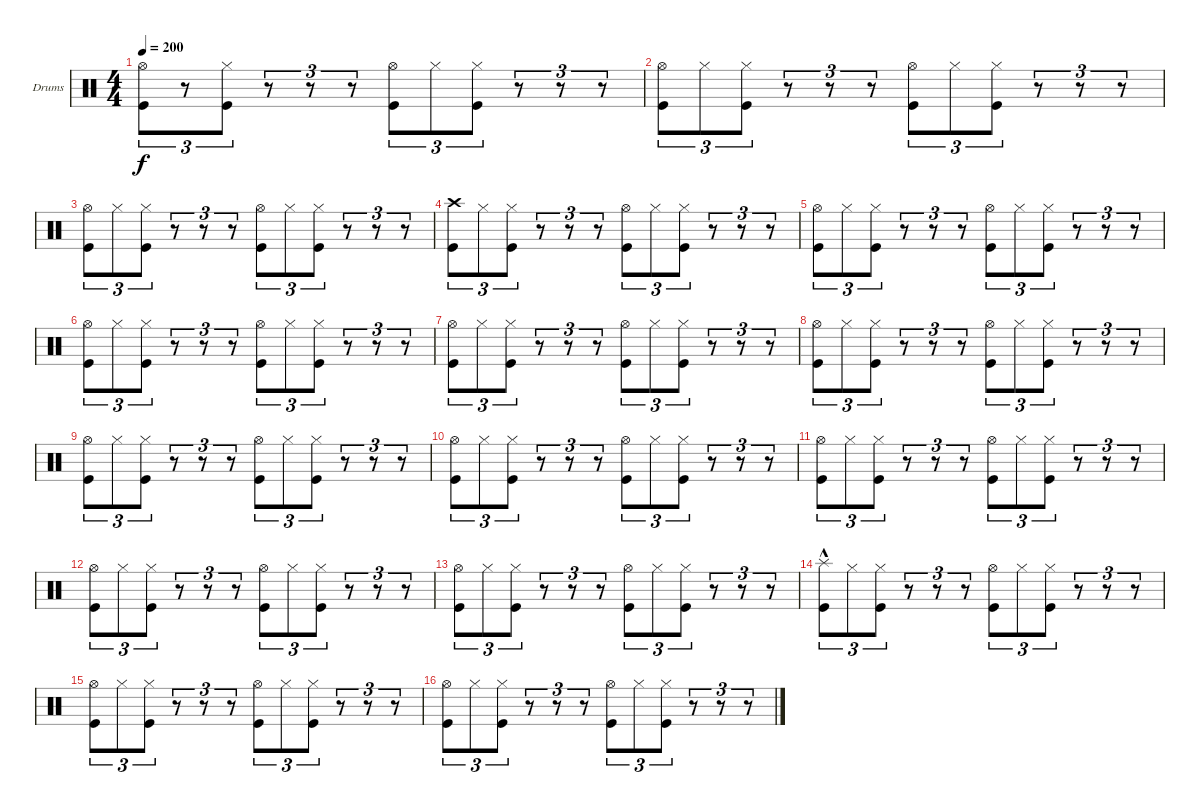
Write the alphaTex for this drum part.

\bracketExtendMode groupsimilarinstruments
\firstSystemTrackNameOrientation horizontal
\otherSystemsTrackNameOrientation horizontal
\track ("Drumkit" "Drums") {instrument percussion}
\staff {score}
\articulation defaults
\ts (4 4)
\tempo 200
\clef neutral
\scale
0.333333
\ks c
("Kick (hit)" "Hi-Hat (open)").8{tu (3 2) dy f} r.8{tu (3 2)} ("Kick (hit)" "Hi-Hat (closed)").8{tu (3 2)} r.8{tu (3 2)} r.8{tu (3 2)} r.8{tu (3 2)} ("Kick (hit)" "Hi-Hat (open)").8{tu (3 2)} "Hi-Hat (closed)".8{tu (3 2)} ("Kick (hit)" "Hi-Hat (closed)").8{tu (3 2)} r.8{tu (3 2)} r.8{tu (3 2)} r.8{tu (3 2)} |
\scale
0.333333 ("Kick (hit)" "Hi-Hat (open)").8{tu (3 2)} "Hi-Hat (closed)".8{tu (3 2)} ("Kick (hit)" "Hi-Hat (closed)").8{tu (3 2)} r.8{tu (3 2)} r.8{tu (3 2)} r.8{tu (3 2)} ("Kick (hit)" "Hi-Hat (open)").8{tu (3 2)} "Hi-Hat (closed)".8{tu (3 2)} ("Kick (hit)" "Hi-Hat (closed)").8{tu (3 2)} r.8{tu (3 2)} r.8{tu (3 2)} r.8{tu (3 2)} |
\scale
0.333333 ("Kick (hit)" "Hi-Hat (open)").8{tu (3 2)} "Hi-Hat (closed)".8{tu (3 2)} ("Kick (hit)" "Hi-Hat (closed)").8{tu (3 2)} r.8{tu (3 2)} r.8{tu (3 2)} r.8{tu (3 2)} ("Kick (hit)" "Hi-Hat (open)").8{tu (3 2)} "Hi-Hat (closed)".8{tu (3 2)} ("Kick (hit)" "Hi-Hat (closed)").8{tu (3 2)} r.8{tu (3 2)} r.8{tu (3 2)} r.8{tu (3 2)} |
\scale
0.333333 ("Kick (hit)" "Crash high (hit)").8{tu (3 2)} "Hi-Hat (closed)".8{tu (3 2)} ("Kick (hit)" "Hi-Hat (closed)").8{tu (3 2)} r.8{tu (3 2)} r.8{tu (3 2)} r.8{tu (3 2)} ("Kick (hit)" "Hi-Hat (open)").8{tu (3 2)} "Hi-Hat (closed)".8{tu (3 2)} ("Kick (hit)" "Hi-Hat (closed)").8{tu (3 2)} r.8{tu (3 2)} r.8{tu (3 2)} r.8{tu (3 2)} |
\scale
0.333333 ("Kick (hit)" "Hi-Hat (open)").8{tu (3 2)} "Hi-Hat (closed)".8{tu (3 2)} ("Kick (hit)" "Hi-Hat (closed)").8{tu (3 2)} r.8{tu (3 2)} r.8{tu (3 2)} r.8{tu (3 2)} ("Kick (hit)" "Hi-Hat (open)").8{tu (3 2)} "Hi-Hat (closed)".8{tu (3 2)} ("Kick (hit)" "Hi-Hat (closed)").8{tu (3 2)} r.8{tu (3 2)} r.8{tu (3 2)} r.8{tu (3 2)} |
\scale
0.333333 ("Kick (hit)" "Hi-Hat (open)").8{tu (3 2)} "Hi-Hat (closed)".8{tu (3 2)} ("Kick (hit)" "Hi-Hat (closed)").8{tu (3 2)} r.8{tu (3 2)} r.8{tu (3 2)} r.8{tu (3 2)} ("Kick (hit)" "Hi-Hat (open)").8{tu (3 2)} "Hi-Hat (closed)".8{tu (3 2)} ("Kick (hit)" "Hi-Hat (closed)").8{tu (3 2)} r.8{tu (3 2)} r.8{tu (3 2)} r.8{tu (3 2)} |
\scale
0.333333 ("Kick (hit)" "Hi-Hat (open)").8{tu (3 2)} "Hi-Hat (closed)".8{tu (3 2)} ("Kick (hit)" "Hi-Hat (closed)").8{tu (3 2)} r.8{tu (3 2)} r.8{tu (3 2)} r.8{tu (3 2)} ("Kick (hit)" "Hi-Hat (open)").8{tu (3 2)} "Hi-Hat (closed)".8{tu (3 2)} ("Kick (hit)" "Hi-Hat (closed)").8{tu (3 2)} r.8{tu (3 2)} r.8{tu (3 2)} r.8{tu (3 2)} |
\scale
0.333333 ("Kick (hit)" "Hi-Hat (open)").8{tu (3 2)} "Hi-Hat (closed)".8{tu (3 2)} ("Kick (hit)" "Hi-Hat (closed)").8{tu (3 2)} r.8{tu (3 2)} r.8{tu (3 2)} r.8{tu (3 2)} ("Kick (hit)" "Hi-Hat (open)").8{tu (3 2)} "Hi-Hat (closed)".8{tu (3 2)} ("Kick (hit)" "Hi-Hat (closed)").8{tu (3 2)} r.8{tu (3 2)} r.8{tu (3 2)} r.8{tu (3 2)} |
\scale
0.333333 ("Kick (hit)" "Hi-Hat (open)").8{tu (3 2)} "Hi-Hat (closed)".8{tu (3 2)} ("Kick (hit)" "Hi-Hat (closed)").8{tu (3 2)} r.8{tu (3 2)} r.8{tu (3 2)} r.8{tu (3 2)} ("Kick (hit)" "Hi-Hat (open)").8{tu (3 2)} "Hi-Hat (closed)".8{tu (3 2)} ("Kick (hit)" "Hi-Hat (closed)").8{tu (3 2)} r.8{tu (3 2)} r.8{tu (3 2)} r.8{tu (3 2)} |
\scale
0.333333 ("Kick (hit)" "Hi-Hat (open)").8{tu (3 2)} "Hi-Hat (closed)".8{tu (3 2)} ("Kick (hit)" "Hi-Hat (closed)").8{tu (3 2)} r.8{tu (3 2)} r.8{tu (3 2)} r.8{tu (3 2)} ("Kick (hit)" "Hi-Hat (open)").8{tu (3 2)} "Hi-Hat (closed)".8{tu (3 2)} ("Kick (hit)" "Hi-Hat (closed)").8{tu (3 2)} r.8{tu (3 2)} r.8{tu (3 2)} r.8{tu (3 2)} |
\scale
0.333333 ("Kick (hit)" "Hi-Hat (open)").8{tu (3 2)} "Hi-Hat (closed)".8{tu (3 2)} ("Kick (hit)" "Hi-Hat (closed)").8{tu (3 2)} r.8{tu (3 2)} r.8{tu (3 2)} r.8{tu (3 2)} ("Kick (hit)" "Hi-Hat (open)").8{tu (3 2)} "Hi-Hat (closed)".8{tu (3 2)} ("Kick (hit)" "Hi-Hat (closed)").8{tu (3 2)} r.8{tu (3 2)} r.8{tu (3 2)} r.8{tu (3 2)} |
\scale
0.333333 ("Kick (hit)" "Hi-Hat (open)").8{tu (3 2)} "Hi-Hat (closed)".8{tu (3 2)} ("Kick (hit)" "Hi-Hat (closed)").8{tu (3 2)} r.8{tu (3 2)} r.8{tu (3 2)} r.8{tu (3 2)} ("Kick (hit)" "Hi-Hat (open)").8{tu (3 2)} "Hi-Hat (closed)".8{tu (3 2)} ("Kick (hit)" "Hi-Hat (closed)").8{tu (3 2)} r.8{tu (3 2)} r.8{tu (3 2)} r.8{tu (3 2)} |
\scale
0.333333 ("Kick (hit)" "Hi-Hat (open)").8{tu (3 2)} "Hi-Hat (closed)".8{tu (3 2)} ("Kick (hit)" "Hi-Hat (closed)").8{tu (3 2)} r.8{tu (3 2)} r.8{tu (3 2)} r.8{tu (3 2)} ("Kick (hit)" "Hi-Hat (open)").8{tu (3 2)} "Hi-Hat (closed)".8{tu (3 2)} ("Kick (hit)" "Hi-Hat (closed)").8{tu (3 2)} r.8{tu (3 2)} r.8{tu (3 2)} r.8{tu (3 2)} |
\scale
0.333333 ("Kick (hit)" "Splash (hit)"{hac}).8{tu (3 2)} "Hi-Hat (closed)".8{tu (3 2)} ("Kick (hit)" "Hi-Hat (closed)").8{tu (3 2)} r.8{tu (3 2)} r.8{tu (3 2)} r.8{tu (3 2)} ("Kick (hit)" "Hi-Hat (open)").8{tu (3 2)} "Hi-Hat (closed)".8{tu (3 2)} ("Kick (hit)" "Hi-Hat (closed)").8{tu (3 2)} r.8{tu (3 2)} r.8{tu (3 2)} r.8{tu (3 2)} |
\scale
0.333333 ("Kick (hit)" "Hi-Hat (open)").8{tu (3 2)} "Hi-Hat (closed)".8{tu (3 2)} ("Kick (hit)" "Hi-Hat (closed)").8{tu (3 2)} r.8{tu (3 2)} r.8{tu (3 2)} r.8{tu (3 2)} ("Kick (hit)" "Hi-Hat (open)").8{tu (3 2)} "Hi-Hat (closed)".8{tu (3 2)} ("Kick (hit)" "Hi-Hat (closed)").8{tu (3 2)} r.8{tu (3 2)} r.8{tu (3 2)} r.8{tu (3 2)} |
\scale
0.333333 ("Kick (hit)" "Hi-Hat (open)").8{tu (3 2)} "Hi-Hat (closed)".8{tu (3 2)} ("Kick (hit)" "Hi-Hat (closed)").8{tu (3 2)} r.8{tu (3 2)} r.8{tu (3 2)} r.8{tu (3 2)} ("Kick (hit)" "Hi-Hat (open)").8{tu (3 2)} "Hi-Hat (closed)".8{tu (3 2)} ("Kick (hit)" "Hi-Hat (closed)").8{tu (3 2)} r.8{tu (3 2)} r.8{tu (3 2)} r.8{tu (3 2)}
